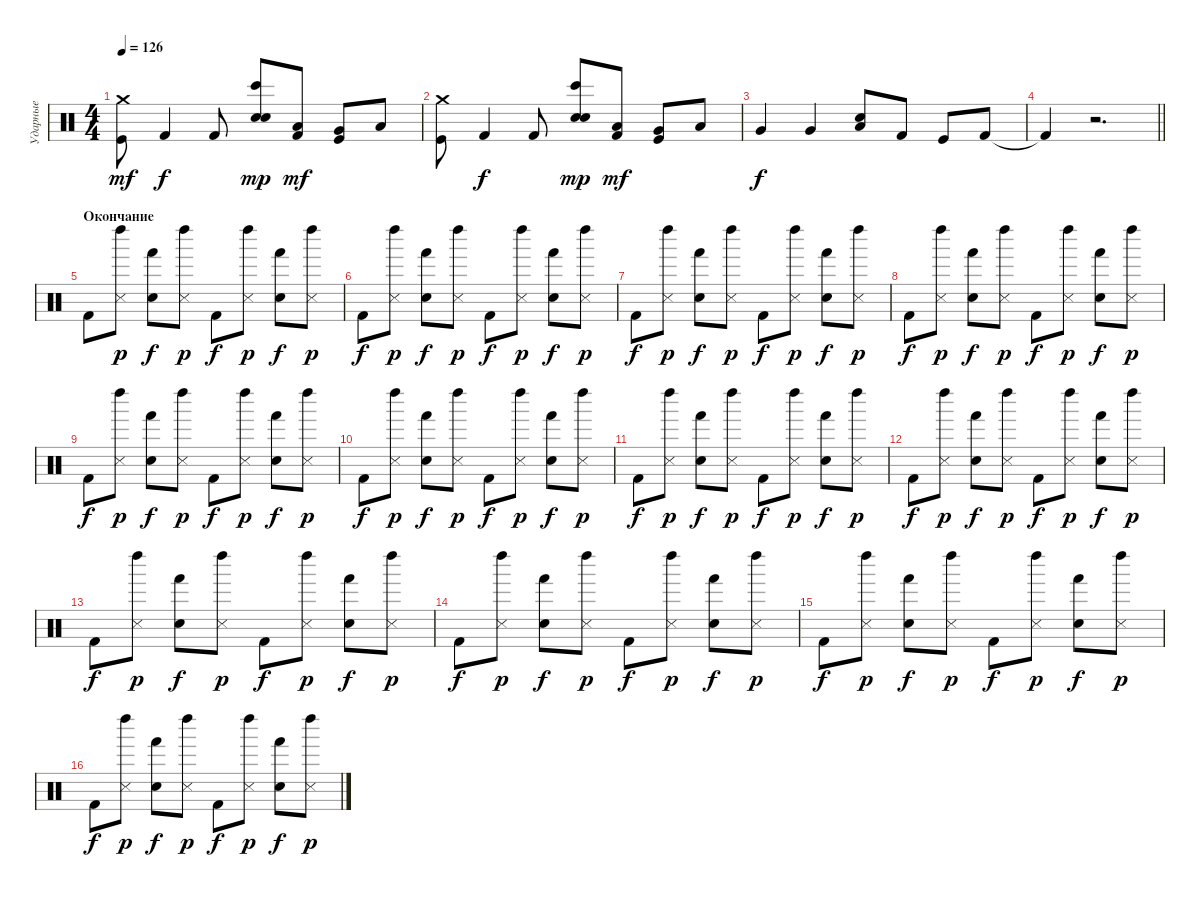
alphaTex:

\track ("Ударные" "Ударные") {instrument percussion}
\staff {score}
\articulation defaults
\ts (4 4)
\tempo 126
\clef neutral
\ks c
("Crash medium (hit)" "Kick (hit)").8{dy mf} "Kick (hit) 2".4{dy f} "Kick (hit) 2".8 ("Electric Snare (hit)" "Bongo High (hit)" "Snare (hit) 2").8{dy mp} ("Low Tom (hit)" "Kick (hit) 2").8{dy mf} ("Very Low Tom (hit)" "Kick (hit)").8 "Low Floor Tom (hit)".8 |
("Crash medium (hit)" "Kick (hit)").8 "Kick (hit) 2".4{dy f} "Kick (hit) 2".8 ("Electric Snare (hit)" "Bongo High (hit)" "Snare (hit) 2").8{dy mp} ("Low Tom (hit)" "Kick (hit) 2").8{dy mf} ("Very Low Tom (hit)" "Kick (hit)").8 "Low Floor Tom (hit)".8 |
"Very Low Tom (hit)".4{dy f} "Very Low Tom (hit)".4 ("Snare (hit) 2" "Low Floor Tom (hit)").8 "Kick (hit) 2".8 "Kick (hit)".8 "Kick (hit) 2".8 |
\barLineRight lightlight "Kick (hit) 2"{t}.4
r.2{d} |
\section ("" "Окончание")
"Kick (hit) 2".8 ("Left Maraca (hit)" "Metronome (hit)").8{dy p} ("Electric Snare (hit)" "Hand (hit)").8{dy f} ("Left Maraca (hit)" "Metronome (hit)").8{dy p} "Kick (hit) 2".8{dy f} ("Left Maraca (hit)" "Metronome (hit)").8{dy p} ("Electric Snare (hit)" "Hand (hit)").8{dy f} ("Left Maraca (hit)" "Metronome (hit)").8{dy p} |
"Kick (hit) 2".8{dy f} ("Left Maraca (hit)" "Metronome (hit)").8{dy p} ("Electric Snare (hit)" "Hand (hit)").8{dy f} ("Left Maraca (hit)" "Metronome (hit)").8{dy p} "Kick (hit) 2".8{dy f} ("Left Maraca (hit)" "Metronome (hit)").8{dy p} ("Electric Snare (hit)" "Hand (hit)").8{dy f} ("Left Maraca (hit)" "Metronome (hit)").8{dy p} |
"Kick (hit) 2".8{dy f} ("Left Maraca (hit)" "Metronome (hit)").8{dy p} ("Electric Snare (hit)" "Hand (hit)").8{dy f} ("Left Maraca (hit)" "Metronome (hit)").8{dy p} "Kick (hit) 2".8{dy f} ("Left Maraca (hit)" "Metronome (hit)").8{dy p} ("Electric Snare (hit)" "Hand (hit)").8{dy f} ("Left Maraca (hit)" "Metronome (hit)").8{dy p} |
"Kick (hit) 2".8{dy f} ("Left Maraca (hit)" "Metronome (hit)").8{dy p} ("Electric Snare (hit)" "Hand (hit)").8{dy f} ("Left Maraca (hit)" "Metronome (hit)").8{dy p} "Kick (hit) 2".8{dy f} ("Left Maraca (hit)" "Metronome (hit)").8{dy p} ("Electric Snare (hit)" "Hand (hit)").8{dy f} ("Left Maraca (hit)" "Metronome (hit)").8{dy p} |
"Kick (hit) 2".8{dy f} ("Left Maraca (hit)" "Metronome (hit)").8{dy p} ("Electric Snare (hit)" "Hand (hit)").8{dy f} ("Left Maraca (hit)" "Metronome (hit)").8{dy p} "Kick (hit) 2".8{dy f} ("Left Maraca (hit)" "Metronome (hit)").8{dy p} ("Electric Snare (hit)" "Hand (hit)").8{dy f} ("Left Maraca (hit)" "Metronome (hit)").8{dy p} |
"Kick (hit) 2".8{dy f} ("Left Maraca (hit)" "Metronome (hit)").8{dy p} ("Electric Snare (hit)" "Hand (hit)").8{dy f} ("Left Maraca (hit)" "Metronome (hit)").8{dy p} "Kick (hit) 2".8{dy f} ("Left Maraca (hit)" "Metronome (hit)").8{dy p} ("Electric Snare (hit)" "Hand (hit)").8{dy f} ("Left Maraca (hit)" "Metronome (hit)").8{dy p} |
"Kick (hit) 2".8{dy f} ("Left Maraca (hit)" "Metronome (hit)").8{dy p} ("Electric Snare (hit)" "Hand (hit)").8{dy f} ("Left Maraca (hit)" "Metronome (hit)").8{dy p} "Kick (hit) 2".8{dy f} ("Left Maraca (hit)" "Metronome (hit)").8{dy p} ("Electric Snare (hit)" "Hand (hit)").8{dy f} ("Left Maraca (hit)" "Metronome (hit)").8{dy p} |
"Kick (hit) 2".8{dy f} ("Left Maraca (hit)" "Metronome (hit)").8{dy p} ("Electric Snare (hit)" "Hand (hit)").8{dy f} ("Left Maraca (hit)" "Metronome (hit)").8{dy p} "Kick (hit) 2".8{dy f} ("Left Maraca (hit)" "Metronome (hit)").8{dy p} ("Electric Snare (hit)" "Hand (hit)").8{dy f} ("Left Maraca (hit)" "Metronome (hit)").8{dy p} |
"Kick (hit) 2".8{dy f} ("Left Maraca (hit)" "Metronome (hit)").8{dy p} ("Electric Snare (hit)" "Hand (hit)").8{dy f} ("Left Maraca (hit)" "Metronome (hit)").8{dy p} "Kick (hit) 2".8{dy f} ("Left Maraca (hit)" "Metronome (hit)").8{dy p} ("Electric Snare (hit)" "Hand (hit)").8{dy f} ("Left Maraca (hit)" "Metronome (hit)").8{dy p} |
"Kick (hit) 2".8{dy f} ("Left Maraca (hit)" "Metronome (hit)").8{dy p} ("Electric Snare (hit)" "Hand (hit)").8{dy f} ("Left Maraca (hit)" "Metronome (hit)").8{dy p} "Kick (hit) 2".8{dy f} ("Left Maraca (hit)" "Metronome (hit)").8{dy p} ("Electric Snare (hit)" "Hand (hit)").8{dy f} ("Left Maraca (hit)" "Metronome (hit)").8{dy p} |
"Kick (hit) 2".8{dy f} ("Left Maraca (hit)" "Metronome (hit)").8{dy p} ("Electric Snare (hit)" "Hand (hit)").8{dy f} ("Left Maraca (hit)" "Metronome (hit)").8{dy p} "Kick (hit) 2".8{dy f} ("Left Maraca (hit)" "Metronome (hit)").8{dy p} ("Electric Snare (hit)" "Hand (hit)").8{dy f} ("Left Maraca (hit)" "Metronome (hit)").8{dy p} |
"Kick (hit) 2".8{dy f} ("Left Maraca (hit)" "Metronome (hit)").8{dy p} ("Electric Snare (hit)" "Hand (hit)").8{dy f} ("Left Maraca (hit)" "Metronome (hit)").8{dy p} "Kick (hit) 2".8{dy f} ("Left Maraca (hit)" "Metronome (hit)").8{dy p} ("Electric Snare (hit)" "Hand (hit)").8{dy f} ("Left Maraca (hit)" "Metronome (hit)").8{dy p}
